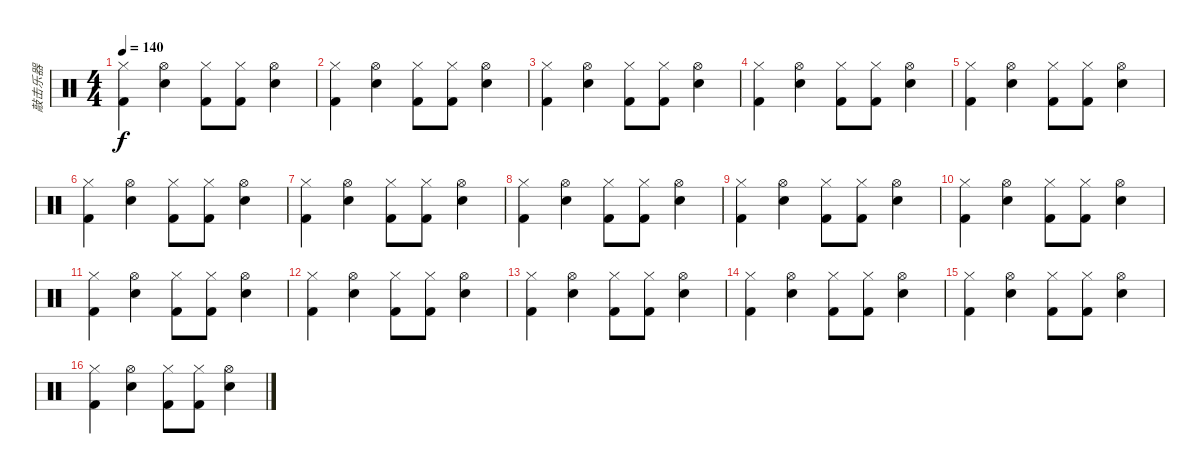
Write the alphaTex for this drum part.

\track ("敲击乐器" "敲击乐器") {instrument percussion}
\staff {score}
\articulation defaults
\ts (4 4)
\tempo 140
\clef neutral
\ks c
("Hi-Hat (closed)" "Kick (hit) 2").4{dy f} ("Hi-Hat (open)" "Electric Snare (hit)").4 ("Hi-Hat (closed)" "Kick (hit) 2").8 ("Hi-Hat (closed)" "Kick (hit) 2").8 ("Hi-Hat (open)" "Electric Snare (hit)").4 |
("Hi-Hat (closed)" "Kick (hit) 2").4 ("Hi-Hat (open)" "Electric Snare (hit)").4 ("Hi-Hat (closed)" "Kick (hit) 2").8 ("Hi-Hat (closed)" "Kick (hit) 2").8 ("Hi-Hat (open)" "Electric Snare (hit)").4 |
("Hi-Hat (closed)" "Kick (hit) 2").4 ("Hi-Hat (open)" "Electric Snare (hit)").4 ("Hi-Hat (closed)" "Kick (hit) 2").8 ("Hi-Hat (closed)" "Kick (hit) 2").8 ("Hi-Hat (open)" "Electric Snare (hit)").4 |
("Hi-Hat (closed)" "Kick (hit) 2").4 ("Hi-Hat (open)" "Electric Snare (hit)").4 ("Hi-Hat (closed)" "Kick (hit) 2").8 ("Hi-Hat (closed)" "Kick (hit) 2").8 ("Hi-Hat (open)" "Electric Snare (hit)").4 |
("Hi-Hat (closed)" "Kick (hit) 2").4 ("Hi-Hat (open)" "Electric Snare (hit)").4 ("Hi-Hat (closed)" "Kick (hit) 2").8 ("Hi-Hat (closed)" "Kick (hit) 2").8 ("Hi-Hat (open)" "Electric Snare (hit)").4 |
("Hi-Hat (closed)" "Kick (hit) 2").4 ("Hi-Hat (open)" "Electric Snare (hit)").4 ("Hi-Hat (closed)" "Kick (hit) 2").8 ("Hi-Hat (closed)" "Kick (hit) 2").8 ("Hi-Hat (open)" "Electric Snare (hit)").4 |
("Hi-Hat (closed)" "Kick (hit) 2").4 ("Hi-Hat (open)" "Electric Snare (hit)").4 ("Hi-Hat (closed)" "Kick (hit) 2").8 ("Hi-Hat (closed)" "Kick (hit) 2").8 ("Hi-Hat (open)" "Electric Snare (hit)").4 |
("Hi-Hat (closed)" "Kick (hit) 2").4 ("Hi-Hat (open)" "Electric Snare (hit)").4 ("Hi-Hat (closed)" "Kick (hit) 2").8 ("Hi-Hat (closed)" "Kick (hit) 2").8 ("Hi-Hat (open)" "Electric Snare (hit)").4 |
("Hi-Hat (closed)" "Kick (hit) 2").4 ("Hi-Hat (open)" "Electric Snare (hit)").4 ("Hi-Hat (closed)" "Kick (hit) 2").8 ("Hi-Hat (closed)" "Kick (hit) 2").8 ("Hi-Hat (open)" "Electric Snare (hit)").4 |
("Hi-Hat (closed)" "Kick (hit) 2").4 ("Hi-Hat (open)" "Electric Snare (hit)").4 ("Hi-Hat (closed)" "Kick (hit) 2").8 ("Hi-Hat (closed)" "Kick (hit) 2").8 ("Hi-Hat (open)" "Electric Snare (hit)").4 |
("Hi-Hat (closed)" "Kick (hit) 2").4 ("Hi-Hat (open)" "Electric Snare (hit)").4 ("Hi-Hat (closed)" "Kick (hit) 2").8 ("Hi-Hat (closed)" "Kick (hit) 2").8 ("Hi-Hat (open)" "Electric Snare (hit)").4 |
("Hi-Hat (closed)" "Kick (hit) 2").4 ("Hi-Hat (open)" "Electric Snare (hit)").4 ("Hi-Hat (closed)" "Kick (hit) 2").8 ("Hi-Hat (closed)" "Kick (hit) 2").8 ("Hi-Hat (open)" "Electric Snare (hit)").4 |
("Hi-Hat (closed)" "Kick (hit) 2").4 ("Hi-Hat (open)" "Electric Snare (hit)").4 ("Hi-Hat (closed)" "Kick (hit) 2").8 ("Hi-Hat (closed)" "Kick (hit) 2").8 ("Hi-Hat (open)" "Electric Snare (hit)").4 |
("Hi-Hat (closed)" "Kick (hit) 2").4 ("Hi-Hat (open)" "Electric Snare (hit)").4 ("Hi-Hat (closed)" "Kick (hit) 2").8 ("Hi-Hat (closed)" "Kick (hit) 2").8 ("Hi-Hat (open)" "Electric Snare (hit)").4 |
("Hi-Hat (closed)" "Kick (hit) 2").4 ("Hi-Hat (open)" "Electric Snare (hit)").4 ("Hi-Hat (closed)" "Kick (hit) 2").8 ("Hi-Hat (closed)" "Kick (hit) 2").8 ("Hi-Hat (open)" "Electric Snare (hit)").4 |
("Hi-Hat (closed)" "Kick (hit) 2").4 ("Hi-Hat (open)" "Electric Snare (hit)").4 ("Hi-Hat (closed)" "Kick (hit) 2").8 ("Hi-Hat (closed)" "Kick (hit) 2").8 ("Hi-Hat (open)" "Electric Snare (hit)").4
